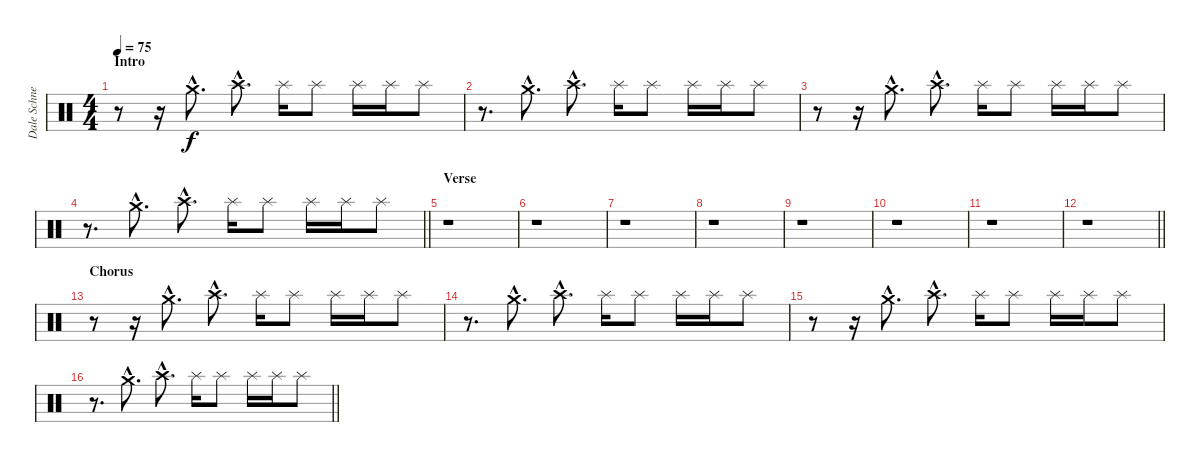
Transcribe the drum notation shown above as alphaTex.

\track ("Dale Schnettler (Drums)" "Dale Schne") {instrument percussion}
\staff {score}
\articulation defaults
\ts (4 4)
\section ("" "Intro")
\tempo 75
\clef neutral
\ks c
r.8{dy f} r.16 "Crash medium (hit)"{hac}.8{d} "Crash high (hit)"{hac}.8{d} "Splash (hit)".16 "Splash (hit)".8 "Splash (hit)".16 "Splash (hit)".16 "Splash (hit)".8 |
r.8{d} "Crash medium (hit)"{hac}.8{d} "Crash high (hit)"{hac}.8{d} "Splash (hit)".16 "Splash (hit)".8 "Splash (hit)".16 "Splash (hit)".16 "Splash (hit)".8 |
r.8 r.16 "Crash medium (hit)"{hac}.8{d} "Crash high (hit)"{hac}.8{d} "Splash (hit)".16 "Splash (hit)".8 "Splash (hit)".16 "Splash (hit)".16 "Splash (hit)".8 |
\barLineRight lightlight
r.8{d} "Crash medium (hit)"{hac}.8{d} "Crash high (hit)"{hac}.8{d} "Splash (hit)".16 "Splash (hit)".8 "Splash (hit)".16 "Splash (hit)".16 "Splash (hit)".8 |
\section ("" "Verse")
r.1 |
r.1 |
r.1 |
r.1 |
r.1 |
r.1 |
r.1 |
\barLineRight lightlight
r.1 |
\section ("" "Chorus")
r.8 r.16 "Crash medium (hit)"{hac}.8{d} "Crash high (hit)"{hac}.8{d} "Splash (hit)".16 "Splash (hit)".8 "Splash (hit)".16 "Splash (hit)".16 "Splash (hit)".8 |
r.8{d} "Crash medium (hit)"{hac}.8{d} "Crash high (hit)"{hac}.8{d} "Splash (hit)".16 "Splash (hit)".8 "Splash (hit)".16 "Splash (hit)".16 "Splash (hit)".8 |
r.8 r.16 "Crash medium (hit)"{hac}.8{d} "Crash high (hit)"{hac}.8{d} "Splash (hit)".16 "Splash (hit)".8 "Splash (hit)".16 "Splash (hit)".16 "Splash (hit)".8 |
\barLineRight lightlight
r.8{d} "Crash medium (hit)"{hac}.8{d} "Crash high (hit)"{hac}.8{d} "Splash (hit)".16 "Splash (hit)".8 "Splash (hit)".16 "Splash (hit)".16 "Splash (hit)".8
